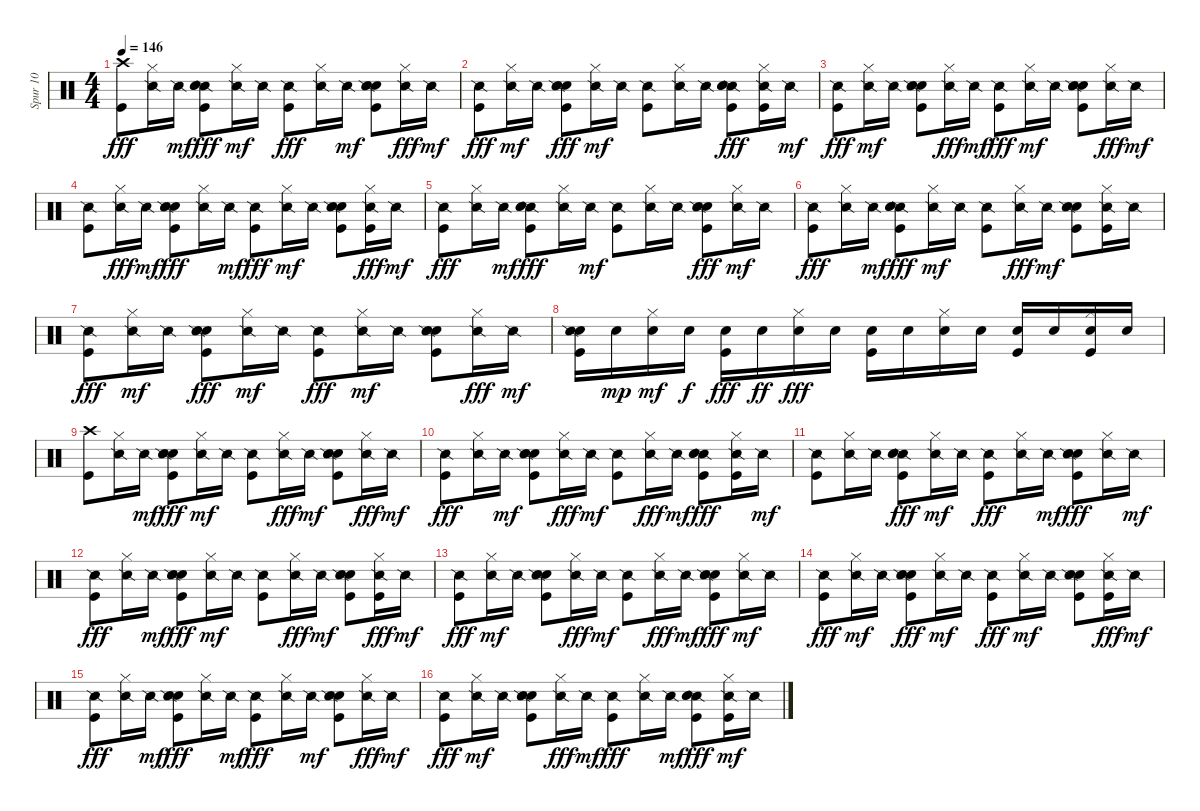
\track ("Spur 10" "Spur 10") {instrument percussion}
\staff {score}
\articulation defaults
\ts (4 4)
\tempo 146
\clef neutral
\ks c
("Kick (hit)" "Crash high (hit)").8{dy fff} ("Snare (side stick) 2" "Hi-Hat (closed)").16 "Snare (side stick) 2".16{dy mf} ("Snare (side stick) 2" "Hand Clap (hit)" "Electric Snare (hit)" "Kick (hit)").8{dy fff} ("Hi-Hat (closed)" "Snare (side stick) 2").16{dy mf} "Snare (side stick) 2".16 ("Snare (side stick) 2" "Kick (hit)").8{dy fff} ("Snare (side stick) 2" "Hi-Hat (closed)").16 "Snare (side stick) 2".16{dy mf} ("Electric Snare (hit)" "Hand Clap (hit)" "Kick (hit)" "Snare (side stick) 2").8 ("Snare (side stick) 2" "Hi-Hat (closed)").16{dy fff} "Snare (side stick) 2".16{dy mf} |
("Snare (side stick) 2" "Kick (hit)").8{dy fff} ("Hi-Hat (closed)" "Snare (side stick) 2").16{dy mf} "Snare (side stick) 2".16 ("Hand Clap (hit)" "Snare (side stick) 2" "Electric Snare (hit)" "Kick (hit)").8{dy fff} ("Hi-Hat (closed)" "Snare (side stick) 2").16{dy mf} "Snare (side stick) 2".16 ("Kick (hit)" "Snare (side stick) 2").8 ("Hi-Hat (closed)" "Snare (side stick) 2").16 "Snare (side stick) 2".16 ("Snare (side stick) 2" "Electric Snare (hit)" "Kick (hit)" "Hand Clap (hit)").8{dy fff} ("Snare (side stick) 2" "Kick (hit)" "Hi-Hat (closed)").16 "Snare (side stick) 2".16{dy mf} |
("Snare (side stick) 2" "Kick (hit)").8{dy fff} ("Hi-Hat (closed)" "Snare (side stick) 2").16{dy mf} "Snare (side stick) 2".16 ("Hand Clap (hit)" "Kick (hit)" "Electric Snare (hit)" "Snare (side stick) 2").8 ("Snare (side stick) 2" "Hi-Hat (closed)").16{dy fff} "Snare (side stick) 2".16{dy mf} ("Snare (side stick) 2" "Kick (hit)").8{dy fff} ("Hi-Hat (closed)" "Snare (side stick) 2").16{dy mf} "Snare (side stick) 2".16 ("Hand Clap (hit)" "Kick (hit)" "Snare (side stick) 2" "Electric Snare (hit)").8 ("Snare (side stick) 2" "Hi-Hat (closed)").16{dy fff} "Snare (side stick) 2".16{dy mf} |
("Kick (hit)" "Snare (side stick) 2").8 ("Snare (side stick) 2" "Hi-Hat (closed)").16{dy fff} "Snare (side stick) 2".16{dy mf} ("Electric Snare (hit)" "Hand Clap (hit)" "Snare (side stick) 2" "Kick (hit)").8{dy fff} ("Snare (side stick) 2" "Hi-Hat (closed)").16 "Snare (side stick) 2".16{dy mf} ("Snare (side stick) 2" "Kick (hit)").8{dy fff} ("Hi-Hat (closed)" "Snare (side stick) 2").16{dy mf} "Snare (side stick) 2".16 ("Kick (hit)" "Hand Clap (hit)" "Electric Snare (hit)" "Snare (side stick) 2").8 ("Snare (side stick) 2" "Hi-Hat (closed)" "Kick (hit)").16{dy fff} "Snare (side stick) 2".16{dy mf} |
("Snare (side stick) 2" "Kick (hit)").8{dy fff} ("Snare (side stick) 2" "Hi-Hat (closed)").16 "Snare (side stick) 2".16{dy mf} ("Snare (side stick) 2" "Kick (hit)" "Electric Snare (hit)" "Hand Clap (hit)").8{dy fff} ("Snare (side stick) 2" "Hi-Hat (closed)").16 "Snare (side stick) 2".16{dy mf} ("Kick (hit)" "Snare (side stick) 2").8 ("Hi-Hat (closed)" "Snare (side stick) 2").16 "Snare (side stick) 2".16 ("Kick (hit)" "Electric Snare (hit)" "Snare (side stick) 2" "Hand Clap (hit)").8{dy fff} ("Hi-Hat (closed)" "Snare (side stick) 2").16{dy mf} "Snare (side stick) 2".16 |
("Snare (side stick) 2" "Kick (hit)").8{dy fff} ("Snare (side stick) 2" "Hi-Hat (closed)").16 "Snare (side stick) 2".16{dy mf} ("Snare (side stick) 2" "Electric Snare (hit)" "Kick (hit)" "Hand Clap (hit)").8{dy fff} ("Hi-Hat (closed)" "Snare (side stick) 2").16{dy mf} "Snare (side stick) 2".16 ("Kick (hit)" "Snare (side stick) 2").8 ("Snare (side stick) 2" "Hi-Hat (closed)").16{dy fff} "Snare (side stick) 2".16{dy mf} ("Kick (hit)" "Hand Clap (hit)" "Snare (side stick) 2" "Electric Snare (hit)").8 ("Kick (hit)" "Hi-Hat (closed)" "Snare (side stick) 2").16 "Snare (side stick) 2".16 |
("Snare (side stick) 2" "Kick (hit)").8{dy fff} ("Hi-Hat (closed)" "Snare (side stick) 2").16{dy mf} "Snare (side stick) 2".16 ("Hand Clap (hit)" "Snare (side stick) 2" "Electric Snare (hit)" "Kick (hit)").8{dy fff} ("Hi-Hat (closed)" "Snare (side stick) 2").16{dy mf} "Snare (side stick) 2".16 ("Snare (side stick) 2" "Kick (hit)").8{dy fff} ("Hi-Hat (closed)" "Snare (side stick) 2").16{dy mf} "Snare (side stick) 2".16 ("Kick (hit)" "Electric Snare (hit)" "Hand Clap (hit)" "Snare (side stick) 2").8 ("Snare (side stick) 2" "Hi-Hat (closed)").16{dy fff} "Snare (side stick) 2".16{dy mf} |
("Snare (hit) 2" "Kick (hit)" "Snare (side stick) 2").16 "Snare (hit) 2".16{dy mp} ("Hi-Hat (closed)" "Snare (hit) 2").16{dy mf} "Snare (hit) 2".16{dy f} ("Snare (hit) 2" "Kick (hit)").16{dy fff} "Snare (hit) 2".16{dy ff} ("Snare (hit) 2" "Hi-Hat (closed)").16{dy fff} "Snare (hit) 2".16 ("Snare (hit) 2" "Kick (hit)").16 "Snare (hit) 2".16 ("Snare (hit) 2" "Hi-Hat (closed)").16 "Snare (hit) 2".16 ("Kick (hit)" "Snare (hit) 2").16 "Snare (hit) 2".16 ("Hi-Hat (closed)" "Kick (hit)" "Snare (hit) 2").16 "Snare (hit) 2".16 |
("Kick (hit)" "Crash high (hit)").8 ("Snare (side stick) 2" "Hi-Hat (closed)").16 "Snare (side stick) 2".16{dy mf} ("Hand Clap (hit)" "Snare (side stick) 2" "Electric Snare (hit)" "Kick (hit)").8{dy fff} ("Hi-Hat (closed)" "Snare (side stick) 2").16{dy mf} "Snare (side stick) 2".16 ("Kick (hit)" "Snare (side stick) 2").8 ("Snare (side stick) 2" "Hi-Hat (closed)").16{dy fff} "Snare (side stick) 2".16{dy mf} ("Kick (hit)" "Hand Clap (hit)" "Electric Snare (hit)" "Snare (side stick) 2").8 ("Snare (side stick) 2" "Hi-Hat (closed)").16{dy fff} "Snare (side stick) 2".16{dy mf} |
("Snare (side stick) 2" "Kick (hit)").8{dy fff} ("Snare (side stick) 2" "Hi-Hat (closed)").16 "Snare (side stick) 2".16{dy mf} ("Kick (hit)" "Hand Clap (hit)" "Snare (side stick) 2" "Electric Snare (hit)").8 ("Snare (side stick) 2" "Hi-Hat (closed)").16{dy fff} "Snare (side stick) 2".16{dy mf} ("Kick (hit)" "Snare (side stick) 2").8 ("Snare (side stick) 2" "Hi-Hat (closed)").16{dy fff} "Snare (side stick) 2".16{dy mf} ("Snare (side stick) 2" "Kick (hit)" "Electric Snare (hit)" "Hand Clap (hit)").8{dy fff} ("Kick (hit)" "Snare (side stick) 2" "Hi-Hat (closed)").16 "Snare (side stick) 2".16{dy mf} |
("Kick (hit)" "Snare (side stick) 2").8 ("Hi-Hat (closed)" "Snare (side stick) 2").16 "Snare (side stick) 2".16 ("Snare (side stick) 2" "Kick (hit)" "Hand Clap (hit)" "Electric Snare (hit)").8{dy fff} ("Hi-Hat (closed)" "Snare (side stick) 2").16{dy mf} "Snare (side stick) 2".16 ("Snare (side stick) 2" "Kick (hit)").8{dy fff} ("Snare (side stick) 2" "Hi-Hat (closed)").16 "Snare (side stick) 2".16{dy mf} ("Electric Snare (hit)" "Kick (hit)" "Snare (side stick) 2" "Hand Clap (hit)").8{dy fff} ("Snare (side stick) 2" "Hi-Hat (closed)").16 "Snare (side stick) 2".16{dy mf} |
("Snare (side stick) 2" "Kick (hit)").8{dy fff} ("Snare (side stick) 2" "Hi-Hat (closed)").16 "Snare (side stick) 2".16{dy mf} ("Hand Clap (hit)" "Snare (side stick) 2" "Kick (hit)" "Electric Snare (hit)").8{dy fff} ("Hi-Hat (closed)" "Snare (side stick) 2").16{dy mf} "Snare (side stick) 2".16 ("Kick (hit)" "Snare (side stick) 2").8 ("Snare (side stick) 2" "Hi-Hat (closed)").16{dy fff} "Snare (side stick) 2".16{dy mf} ("Hand Clap (hit)" "Kick (hit)" "Electric Snare (hit)" "Snare (side stick) 2").8 ("Hi-Hat (closed)" "Snare (side stick) 2" "Kick (hit)").16{dy fff} "Snare (side stick) 2".16{dy mf} |
("Snare (side stick) 2" "Kick (hit)").8{dy fff} ("Hi-Hat (closed)" "Snare (side stick) 2").16{dy mf} "Snare (side stick) 2".16 ("Hand Clap (hit)" "Electric Snare (hit)" "Kick (hit)" "Snare (side stick) 2").8 ("Snare (side stick) 2" "Hi-Hat (closed)").16{dy fff} "Snare (side stick) 2".16{dy mf} ("Kick (hit)" "Snare (side stick) 2").8 ("Snare (side stick) 2" "Hi-Hat (closed)").16{dy fff} "Snare (side stick) 2".16{dy mf} ("Hand Clap (hit)" "Snare (side stick) 2" "Kick (hit)" "Electric Snare (hit)").8{dy fff} ("Hi-Hat (closed)" "Snare (side stick) 2").16{dy mf} "Snare (side stick) 2".16 |
("Snare (side stick) 2" "Kick (hit)").8{dy fff} ("Hi-Hat (closed)" "Snare (side stick) 2").16{dy mf} "Snare (side stick) 2".16 ("Kick (hit)" "Electric Snare (hit)" "Snare (side stick) 2" "Hand Clap (hit)").8{dy fff} ("Hi-Hat (closed)" "Snare (side stick) 2").16{dy mf} "Snare (side stick) 2".16 ("Snare (side stick) 2" "Kick (hit)").8{dy fff} ("Hi-Hat (closed)" "Snare (side stick) 2").16{dy mf} "Snare (side stick) 2".16 ("Kick (hit)" "Hand Clap (hit)" "Electric Snare (hit)" "Snare (side stick) 2").8 ("Snare (side stick) 2" "Kick (hit)" "Hi-Hat (closed)").16{dy fff} "Snare (side stick) 2".16{dy mf} |
("Snare (side stick) 2" "Kick (hit)").8{dy fff} ("Snare (side stick) 2" "Hi-Hat (closed)").16 "Snare (side stick) 2".16{dy mf} ("Hand Clap (hit)" "Electric Snare (hit)" "Snare (side stick) 2" "Kick (hit)").8{dy fff} ("Snare (side stick) 2" "Hi-Hat (closed)").16 "Snare (side stick) 2".16{dy mf} ("Snare (side stick) 2" "Kick (hit)").8{dy fff} ("Snare (side stick) 2" "Hi-Hat (closed)").16 "Snare (side stick) 2".16{dy mf} ("Electric Snare (hit)" "Kick (hit)" "Hand Clap (hit)" "Snare (side stick) 2").8 ("Snare (side stick) 2" "Hi-Hat (closed)").16{dy fff} "Snare (side stick) 2".16{dy mf} |
("Snare (side stick) 2" "Kick (hit)").8{dy fff} ("Hi-Hat (closed)" "Snare (side stick) 2").16{dy mf} "Snare (side stick) 2".16 ("Hand Clap (hit)" "Kick (hit)" "Electric Snare (hit)" "Snare (side stick) 2").8 ("Snare (side stick) 2" "Hi-Hat (closed)").16{dy fff} "Snare (side stick) 2".16{dy mf} ("Snare (side stick) 2" "Kick (hit)").8{dy fff} ("Snare (side stick) 2" "Hi-Hat (closed)").16 "Snare (side stick) 2".16{dy mf} ("Snare (side stick) 2" "Electric Snare (hit)" "Kick (hit)" "Hand Clap (hit)").8{dy fff} ("Kick (hit)" "Hi-Hat (closed)" "Snare (side stick) 2").16{dy mf} "Snare (side stick) 2".16
